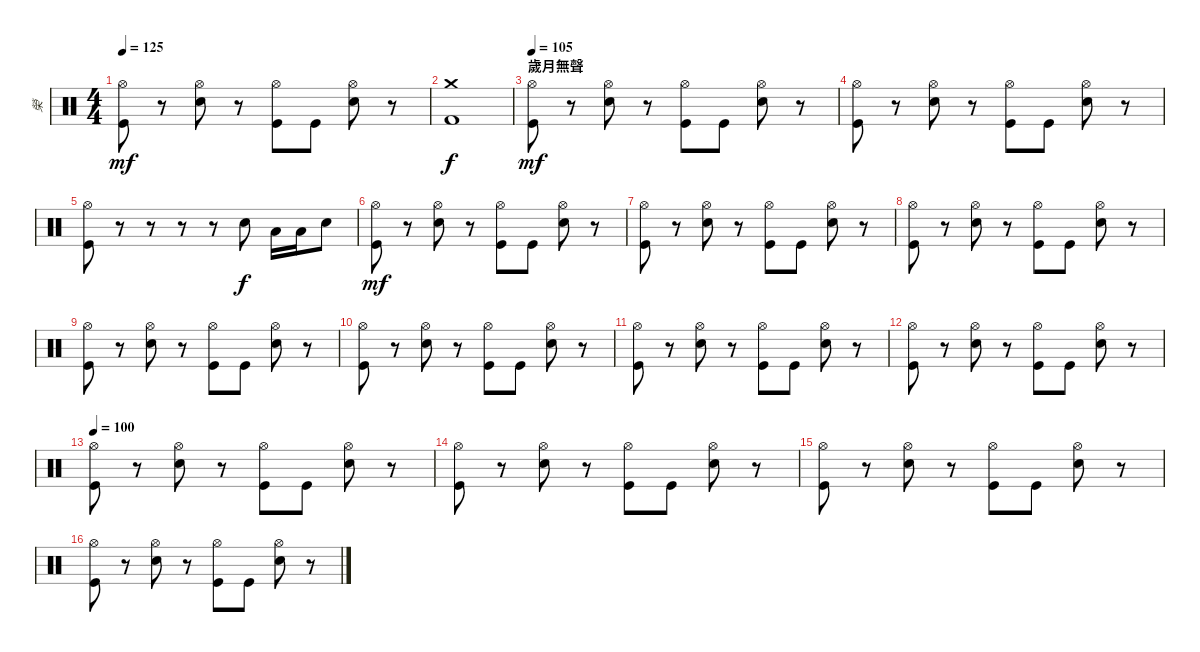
\track ("榮" "榮") {instrument percussion}
\staff {score}
\articulation defaults
\ts (4 4)
\tempo 125
\clef neutral
\ks c
("Hi-Hat (open)" "Kick (hit)").8{dy mf} r.8 ("Hi-Hat (open)" "Snare (hit) 2").8 r.8 ("Hi-Hat (open)" "Kick (hit)").8 "Kick (hit)".8 ("Hi-Hat (open)" "Snare (hit) 2").8 r.8 |
("Crash medium (hit)" "Kick (hit) 2").1{dy f} |
\section ("" "歲月無聲")
\tempo 100
\tempo 105
("Hi-Hat (open)" "Kick (hit)").8{dy mf} r.8 ("Hi-Hat (open)" "Snare (hit) 2").8 r.8 ("Hi-Hat (open)" "Kick (hit)").8 "Kick (hit)".8 ("Hi-Hat (open)" "Snare (hit) 2").8 r.8 |
("Hi-Hat (open)" "Kick (hit)").8 r.8 ("Hi-Hat (open)" "Snare (hit) 2").8 r.8 ("Hi-Hat (open)" "Kick (hit)").8 "Kick (hit)".8 ("Hi-Hat (open)" "Snare (hit) 2").8 r.8 |
("Hi-Hat (open)" "Kick (hit)").8 r.8 r.8 r.8 r.8 "Snare (hit) 2".8{dy f} "Low Tom (hit)".16 "Low Tom (hit)".16 "Snare (hit) 2".8 |
("Hi-Hat (open)" "Kick (hit)").8{dy mf} r.8 ("Hi-Hat (open)" "Snare (hit) 2").8 r.8 ("Hi-Hat (open)" "Kick (hit)").8 "Kick (hit)".8 ("Hi-Hat (open)" "Snare (hit) 2").8 r.8 |
("Hi-Hat (open)" "Kick (hit)").8 r.8 ("Hi-Hat (open)" "Snare (hit) 2").8 r.8 ("Hi-Hat (open)" "Kick (hit)").8 "Kick (hit)".8 ("Hi-Hat (open)" "Snare (hit) 2").8 r.8 |
("Hi-Hat (open)" "Kick (hit)").8 r.8 ("Hi-Hat (open)" "Snare (hit) 2").8 r.8 ("Hi-Hat (open)" "Kick (hit)").8 "Kick (hit)".8 ("Hi-Hat (open)" "Snare (hit) 2").8 r.8 |
("Hi-Hat (open)" "Kick (hit)").8 r.8 ("Hi-Hat (open)" "Snare (hit) 2").8 r.8 ("Hi-Hat (open)" "Kick (hit)").8 "Kick (hit)".8 ("Hi-Hat (open)" "Snare (hit) 2").8 r.8 |
("Hi-Hat (open)" "Kick (hit)").8 r.8 ("Hi-Hat (open)" "Snare (hit) 2").8 r.8 ("Hi-Hat (open)" "Kick (hit)").8 "Kick (hit)".8 ("Hi-Hat (open)" "Snare (hit) 2").8 r.8 |
("Hi-Hat (open)" "Kick (hit)").8 r.8 ("Hi-Hat (open)" "Snare (hit) 2").8 r.8 ("Hi-Hat (open)" "Kick (hit)").8 "Kick (hit)".8 ("Hi-Hat (open)" "Snare (hit) 2").8 r.8 |
("Hi-Hat (open)" "Kick (hit)").8 r.8 ("Hi-Hat (open)" "Snare (hit) 2").8 r.8 ("Hi-Hat (open)" "Kick (hit)").8 "Kick (hit)".8 ("Hi-Hat (open)" "Snare (hit) 2").8 r.8 |
\tempo 100
("Hi-Hat (open)" "Kick (hit)").8 r.8 ("Hi-Hat (open)" "Snare (hit) 2").8 r.8 ("Hi-Hat (open)" "Kick (hit)").8 "Kick (hit)".8 ("Hi-Hat (open)" "Snare (hit) 2").8 r.8 |
("Hi-Hat (open)" "Kick (hit)").8 r.8 ("Hi-Hat (open)" "Snare (hit) 2").8 r.8 ("Hi-Hat (open)" "Kick (hit)").8 "Kick (hit)".8 ("Hi-Hat (open)" "Snare (hit) 2").8 r.8 |
("Hi-Hat (open)" "Kick (hit)").8 r.8 ("Hi-Hat (open)" "Snare (hit) 2").8 r.8 ("Hi-Hat (open)" "Kick (hit)").8 "Kick (hit)".8 ("Hi-Hat (open)" "Snare (hit) 2").8 r.8 |
("Hi-Hat (open)" "Kick (hit)").8 r.8 ("Hi-Hat (open)" "Snare (hit) 2").8 r.8 ("Hi-Hat (open)" "Kick (hit)").8 "Kick (hit)".8 ("Hi-Hat (open)" "Snare (hit) 2").8 r.8
